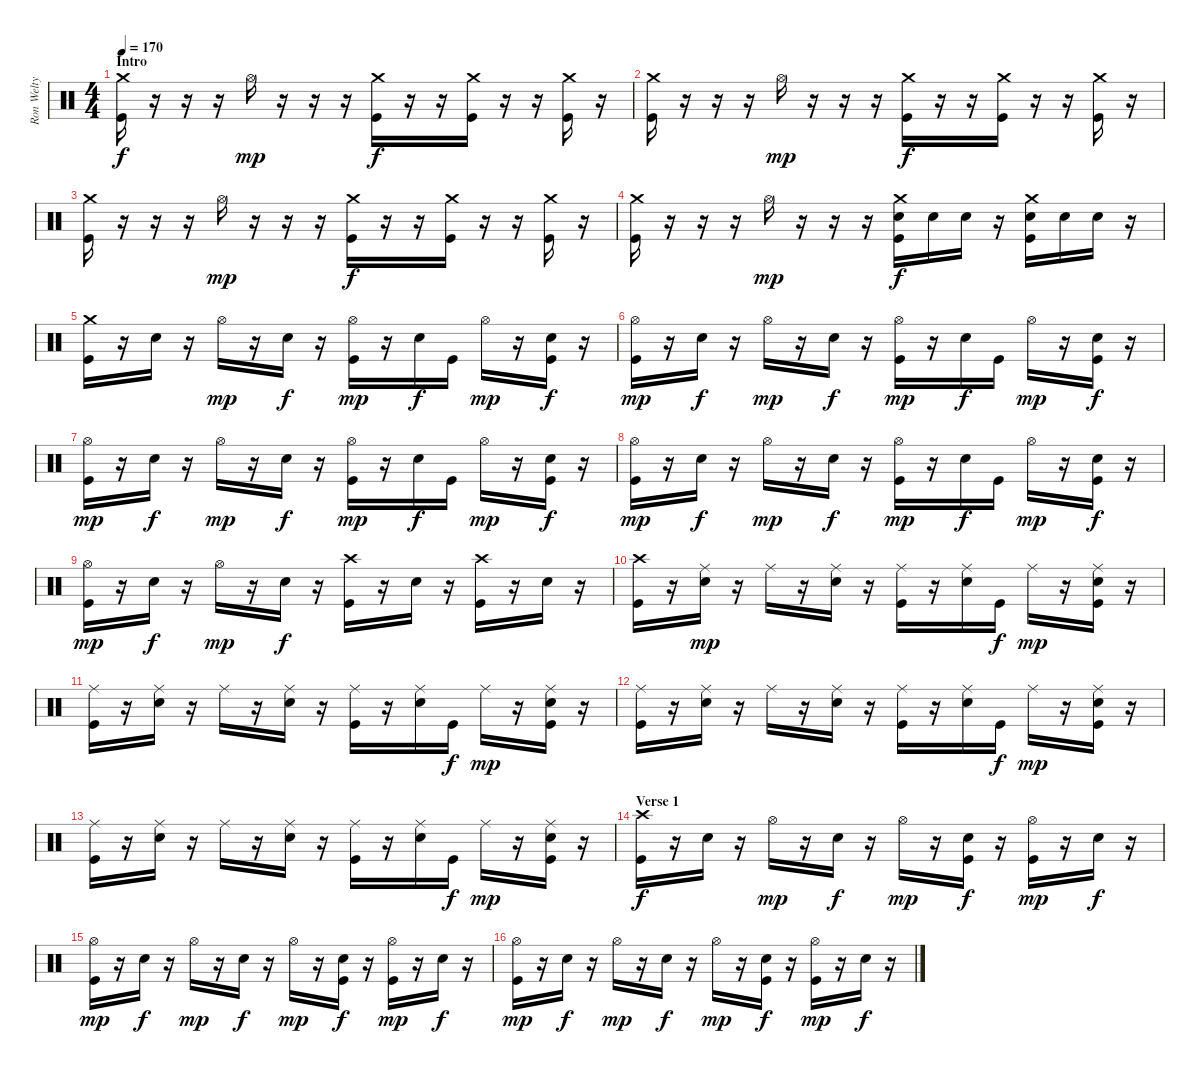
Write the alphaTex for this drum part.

\track ("Ron Welty" "Ron Welty") {instrument percussion}
\staff {score}
\articulation defaults
\ts (4 4)
\section ("" "Intro")
\tempo 170
\clef neutral
\ks c
("Crash medium (hit)" "Kick (hit)").16{dy f} r.16 r.16 r.16 "Hi-Hat (open)".16{dy mp} r.16 r.16 r.16 ("Crash medium (hit)" "Kick (hit)").16{dy f} r.16 r.16 ("Crash medium (hit)" "Kick (hit)").16 r.16 r.16 ("Crash medium (hit)" "Kick (hit)").16 r.16 |
("Crash medium (hit)" "Kick (hit)").16 r.16 r.16 r.16 "Hi-Hat (open)".16{dy mp} r.16 r.16 r.16 ("Crash medium (hit)" "Kick (hit)").16{dy f} r.16 r.16 ("Crash medium (hit)" "Kick (hit)").16 r.16 r.16 ("Crash medium (hit)" "Kick (hit)").16 r.16 |
("Crash medium (hit)" "Kick (hit)").16 r.16 r.16 r.16 "Hi-Hat (open)".16{dy mp} r.16 r.16 r.16 ("Crash medium (hit)" "Kick (hit)").16{dy f} r.16 r.16 ("Crash medium (hit)" "Kick (hit)").16 r.16 r.16 ("Crash medium (hit)" "Kick (hit)").16 r.16 |
("Crash medium (hit)" "Kick (hit)").16 r.16 r.16 r.16 "Hi-Hat (open)".16{dy mp} r.16 r.16 r.16 ("Crash medium (hit)" "Snare (hit) 2" "Kick (hit)").16{dy f} "Snare (hit) 2".16 "Snare (hit) 2".16 r.16 ("Crash medium (hit)" "Snare (hit) 2" "Kick (hit)").16 "Snare (hit) 2".16 "Snare (hit) 2".16 r.16 |
("Crash medium (hit)" "Kick (hit)").16 r.16 "Snare (hit) 2".16 r.16 "Hi-Hat (open)".16{dy mp} r.16 "Snare (hit) 2".16{dy f} r.16 ("Hi-Hat (open)" "Kick (hit)").16{dy mp} r.16 "Snare (hit) 2".16{dy f} "Kick (hit)".16 "Hi-Hat (open)".16{dy mp} r.16 ("Snare (hit) 2" "Kick (hit)").16{dy f} r.16 |
("Hi-Hat (open)" "Kick (hit)").16{dy mp} r.16 "Snare (hit) 2".16{dy f} r.16 "Hi-Hat (open)".16{dy mp} r.16 "Snare (hit) 2".16{dy f} r.16 ("Hi-Hat (open)" "Kick (hit)").16{dy mp} r.16 "Snare (hit) 2".16{dy f} "Kick (hit)".16 "Hi-Hat (open)".16{dy mp} r.16 ("Snare (hit) 2" "Kick (hit)").16{dy f} r.16 |
("Hi-Hat (open)" "Kick (hit)").16{dy mp} r.16 "Snare (hit) 2".16{dy f} r.16 "Hi-Hat (open)".16{dy mp} r.16 "Snare (hit) 2".16{dy f} r.16 ("Hi-Hat (open)" "Kick (hit)").16{dy mp} r.16 "Snare (hit) 2".16{dy f} "Kick (hit)".16 "Hi-Hat (open)".16{dy mp} r.16 ("Snare (hit) 2" "Kick (hit)").16{dy f} r.16 |
("Hi-Hat (open)" "Kick (hit)").16{dy mp} r.16 "Snare (hit) 2".16{dy f} r.16 "Hi-Hat (open)".16{dy mp} r.16 "Snare (hit) 2".16{dy f} r.16 ("Hi-Hat (open)" "Kick (hit)").16{dy mp} r.16 "Snare (hit) 2".16{dy f} "Kick (hit)".16 "Hi-Hat (open)".16{dy mp} r.16 ("Snare (hit) 2" "Kick (hit)").16{dy f} r.16 |
("Hi-Hat (open)" "Kick (hit)").16{dy mp} r.16 "Snare (hit) 2".16{dy f} r.16 "Hi-Hat (open)".16{dy mp} r.16 "Snare (hit) 2".16{dy f} r.16 ("Crash high (hit)" "Kick (hit)").16 r.16 "Snare (hit) 2".16 r.16 ("Crash high (hit)" "Kick (hit)").16 r.16 "Snare (hit) 2".16 r.16 |
("Crash high (hit)" "Kick (hit)").16 r.16 ("Ride (middle)" "Snare (hit) 2").16{dy mp} r.16 "Ride (middle)".16 r.16 ("Ride (middle)" "Snare (hit) 2").16 r.16 ("Ride (middle)" "Kick (hit)").16 r.16 ("Ride (middle)" "Snare (hit) 2").16 "Kick (hit)".16{dy f} "Ride (middle)".16{dy mp} r.16 ("Ride (middle)" "Snare (hit) 2" "Kick (hit)").16 r.16 |
("Ride (middle)" "Kick (hit)").16 r.16 ("Ride (middle)" "Snare (hit) 2").16 r.16 "Ride (middle)".16 r.16 ("Ride (middle)" "Snare (hit) 2").16 r.16 ("Ride (middle)" "Kick (hit)").16 r.16 ("Ride (middle)" "Snare (hit) 2").16 "Kick (hit)".16{dy f} "Ride (middle)".16{dy mp} r.16 ("Ride (middle)" "Snare (hit) 2" "Kick (hit)").16 r.16 |
("Ride (middle)" "Kick (hit)").16 r.16 ("Ride (middle)" "Snare (hit) 2").16 r.16 "Ride (middle)".16 r.16 ("Ride (middle)" "Snare (hit) 2").16 r.16 ("Ride (middle)" "Kick (hit)").16 r.16 ("Ride (middle)" "Snare (hit) 2").16 "Kick (hit)".16{dy f} "Ride (middle)".16{dy mp} r.16 ("Ride (middle)" "Snare (hit) 2" "Kick (hit)").16 r.16 |
("Ride (middle)" "Kick (hit)").16 r.16 ("Ride (middle)" "Snare (hit) 2").16 r.16 "Ride (middle)".16 r.16 ("Ride (middle)" "Snare (hit) 2").16 r.16 ("Ride (middle)" "Kick (hit)").16 r.16 ("Ride (middle)" "Snare (hit) 2").16 "Kick (hit)".16{dy f} "Ride (middle)".16{dy mp} r.16 ("Ride (middle)" "Snare (hit) 2" "Kick (hit)").16 r.16 |
\section ("" "Verse 1")
("Crash high (hit)" "Kick (hit)").16{dy f} r.16 "Snare (hit) 2".16 r.16 "Hi-Hat (open)".16{dy mp} r.16 "Snare (hit) 2".16{dy f} r.16 "Hi-Hat (open)".16{dy mp} r.16 ("Snare (hit) 2" "Kick (hit)").16{dy f} r.16 ("Hi-Hat (open)" "Kick (hit)").16{dy mp} r.16 "Snare (hit) 2".16{dy f} r.16 |
("Hi-Hat (open)" "Kick (hit)").16{dy mp} r.16 "Snare (hit) 2".16{dy f} r.16 "Hi-Hat (open)".16{dy mp} r.16 "Snare (hit) 2".16{dy f} r.16 "Hi-Hat (open)".16{dy mp} r.16 ("Snare (hit) 2" "Kick (hit)").16{dy f} r.16 ("Hi-Hat (open)" "Kick (hit)").16{dy mp} r.16 "Snare (hit) 2".16{dy f} r.16 |
("Hi-Hat (open)" "Kick (hit)").16{dy mp} r.16 "Snare (hit) 2".16{dy f} r.16 "Hi-Hat (open)".16{dy mp} r.16 "Snare (hit) 2".16{dy f} r.16 "Hi-Hat (open)".16{dy mp} r.16 ("Snare (hit) 2" "Kick (hit)").16{dy f} r.16 ("Hi-Hat (open)" "Kick (hit)").16{dy mp} r.16 "Snare (hit) 2".16{dy f} r.16
